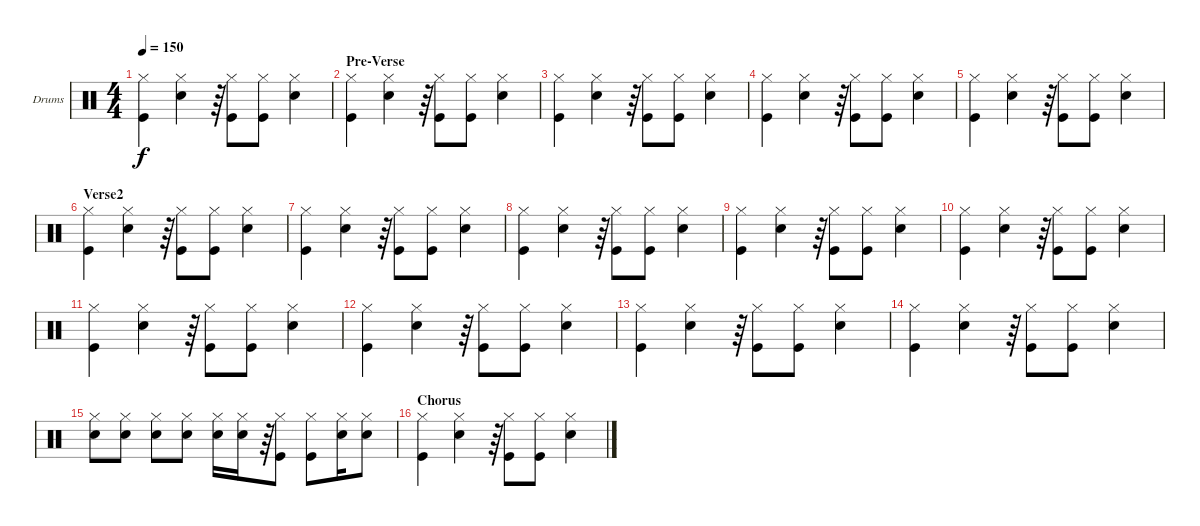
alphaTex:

\defaultSystemsLayout 4
\bracketExtendMode groupsimilarinstruments
\firstSystemTrackNameOrientation horizontal
\otherSystemsTrackNameOrientation horizontal
\track ("Drum" "Drums") {instrument percussion}
\staff {score}
\articulation defaults
\ts (4 4)
\tempo 150
\clef neutral
\ks c
("Hi-Hat (closed)" "Kick (hit)").4{dy f} ("Hi-Hat (closed)" "Snare (hit) 2").4 r.64 ("Hi-Hat (closed)" "Kick (hit)").8 ("Hi-Hat (closed)" "Kick (hit)").8 ("Hi-Hat (closed)" "Snare (hit) 2").4 |
\section ("" "Pre-Verse")
("Hi-Hat (closed)" "Kick (hit)").4 ("Hi-Hat (closed)" "Snare (hit) 2").4 r.64 ("Hi-Hat (closed)" "Kick (hit)").8 ("Hi-Hat (closed)" "Kick (hit)").8 ("Hi-Hat (closed)" "Snare (hit) 2").4 |
("Hi-Hat (closed)" "Kick (hit)").4 ("Hi-Hat (closed)" "Snare (hit) 2").4 r.64 ("Hi-Hat (closed)" "Kick (hit)").8 ("Hi-Hat (closed)" "Kick (hit)").8 ("Hi-Hat (closed)" "Snare (hit) 2").4 |
("Hi-Hat (closed)" "Kick (hit)").4 ("Hi-Hat (closed)" "Snare (hit) 2").4 r.64 ("Hi-Hat (closed)" "Kick (hit)").8 ("Hi-Hat (closed)" "Kick (hit)").8 ("Hi-Hat (closed)" "Snare (hit) 2").4 |
("Hi-Hat (closed)" "Kick (hit)").4 ("Hi-Hat (closed)" "Snare (hit) 2").4 r.64 ("Hi-Hat (closed)" "Kick (hit)").8 ("Hi-Hat (closed)" "Kick (hit)").8 ("Hi-Hat (closed)" "Snare (hit) 2").4 |
\section ("" "Verse2")
("Hi-Hat (closed)" "Kick (hit)").4 ("Hi-Hat (closed)" "Snare (hit) 2").4 r.64 ("Hi-Hat (closed)" "Kick (hit)").8 ("Hi-Hat (closed)" "Kick (hit)").8 ("Hi-Hat (closed)" "Snare (hit) 2").4 |
("Hi-Hat (closed)" "Kick (hit)").4 ("Hi-Hat (closed)" "Snare (hit) 2").4 r.64 ("Hi-Hat (closed)" "Kick (hit)").8 ("Hi-Hat (closed)" "Kick (hit)").8 ("Hi-Hat (closed)" "Snare (hit) 2").4 |
("Hi-Hat (closed)" "Kick (hit)").4 ("Hi-Hat (closed)" "Snare (hit) 2").4 r.64 ("Hi-Hat (closed)" "Kick (hit)").8 ("Hi-Hat (closed)" "Kick (hit)").8 ("Hi-Hat (closed)" "Snare (hit) 2").4 |
("Hi-Hat (closed)" "Kick (hit)").4 ("Hi-Hat (closed)" "Snare (hit) 2").4 r.64 ("Hi-Hat (closed)" "Kick (hit)").8 ("Hi-Hat (closed)" "Kick (hit)").8 ("Hi-Hat (closed)" "Snare (hit) 2").4 |
("Hi-Hat (closed)" "Kick (hit)").4 ("Hi-Hat (closed)" "Snare (hit) 2").4 r.64 ("Hi-Hat (closed)" "Kick (hit)").8 ("Hi-Hat (closed)" "Kick (hit)").8 ("Hi-Hat (closed)" "Snare (hit) 2").4 |
("Hi-Hat (closed)" "Kick (hit)").4 ("Hi-Hat (closed)" "Snare (hit) 2").4 r.64 ("Hi-Hat (closed)" "Kick (hit)").8 ("Hi-Hat (closed)" "Kick (hit)").8 ("Hi-Hat (closed)" "Snare (hit) 2").4 |
("Hi-Hat (closed)" "Kick (hit)").4 ("Hi-Hat (closed)" "Snare (hit) 2").4 r.64 ("Hi-Hat (closed)" "Kick (hit)").8 ("Hi-Hat (closed)" "Kick (hit)").8 ("Hi-Hat (closed)" "Snare (hit) 2").4 |
("Hi-Hat (closed)" "Kick (hit)").4 ("Hi-Hat (closed)" "Snare (hit) 2").4 r.64 ("Hi-Hat (closed)" "Kick (hit)").8 ("Hi-Hat (closed)" "Kick (hit)").8 ("Hi-Hat (closed)" "Snare (hit) 2").4 |
("Hi-Hat (closed)" "Kick (hit)").4 ("Hi-Hat (closed)" "Snare (hit) 2").4 r.64 ("Hi-Hat (closed)" "Kick (hit)").8 ("Hi-Hat (closed)" "Kick (hit)").8 ("Hi-Hat (closed)" "Snare (hit) 2").4 |
("Hi-Hat (closed)" "Snare (hit) 2").8 ("Hi-Hat (closed)" "Snare (hit) 2").8 ("Hi-Hat (closed)" "Snare (hit) 2").8 ("Hi-Hat (closed)" "Snare (hit) 2").8 ("Hi-Hat (closed)" "Snare (hit) 2").16 ("Hi-Hat (closed)" "Snare (hit) 2").16 r.64 ("Hi-Hat (closed)" "Kick (hit)").8 ("Hi-Hat (closed)" "Kick (hit)").8 ("Hi-Hat (closed)" "Snare (hit) 2").16 ("Hi-Hat (closed)" "Snare (hit) 2").8 |
\section ("" "Chorus")
("Hi-Hat (closed)" "Kick (hit)").4 ("Hi-Hat (closed)" "Snare (hit) 2").4 r.64 ("Hi-Hat (closed)" "Kick (hit)").8 ("Hi-Hat (closed)" "Kick (hit)").8 ("Hi-Hat (closed)" "Snare (hit) 2").4
